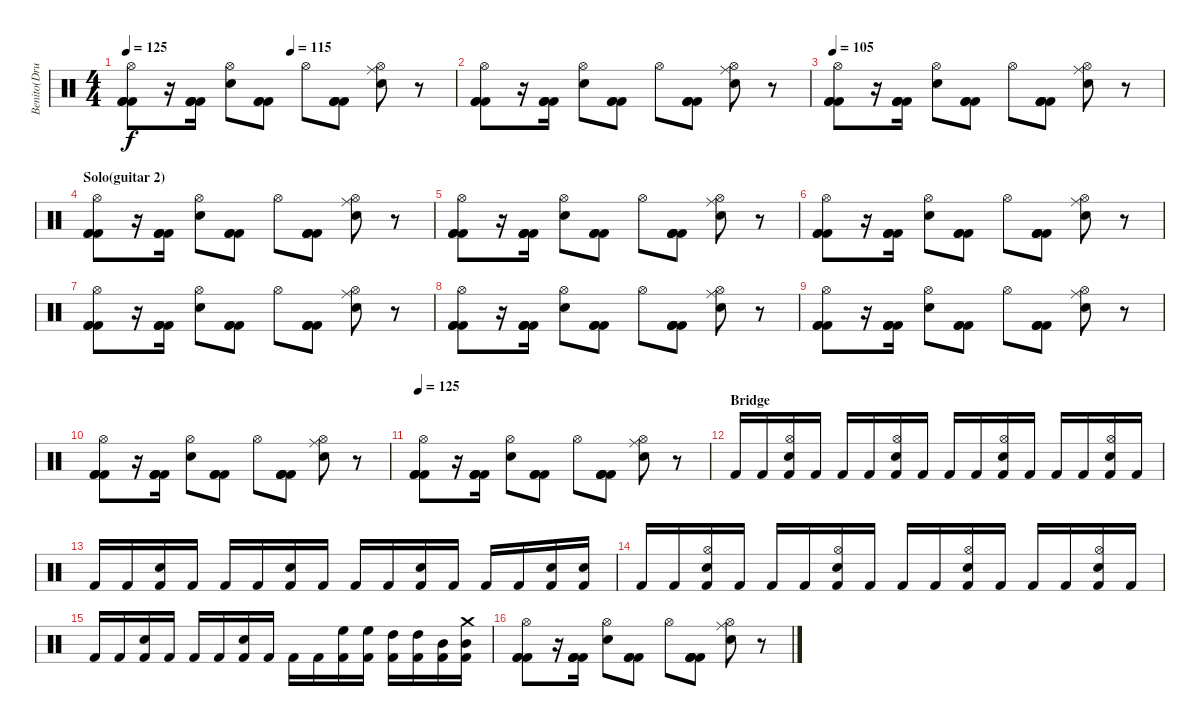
\track ("Benito(Drums)" "Benito(Dru") {instrument percussion}
\staff {score}
\articulation defaults
\ts (4 4)
\tempo 125
\tempo (115 0.5)
\clef neutral
\ks c
("Kick (hit) 2" "Hi-Hat (open)" "Kick (hit) 2" "Kick (hit) 2").8{dy f} r.16 ("Kick (hit) 2" "Kick (hit) 2" "Kick (hit) 2" "Kick (hit) 2").16 ("Electric Snare (hit)" "Hi-Hat (open)").8 ("Kick (hit) 2" "Kick (hit) 2" "Kick (hit) 2").8 "Hi-Hat (open)".8 ("Kick (hit) 2" "Kick (hit) 2" "Kick (hit) 2" "Kick (hit) 2").8 ("Electric Snare (hit)" "Ride (middle)" "Hi-Hat (open)").8 r.8 |
("Kick (hit) 2" "Hi-Hat (open)" "Kick (hit) 2" "Kick (hit) 2").8 r.16 ("Kick (hit) 2" "Kick (hit) 2" "Kick (hit) 2" "Kick (hit) 2").16 ("Electric Snare (hit)" "Hi-Hat (open)").8 ("Kick (hit) 2" "Kick (hit) 2" "Kick (hit) 2").8 "Hi-Hat (open)".8 ("Kick (hit) 2" "Kick (hit) 2" "Kick (hit) 2" "Kick (hit) 2").8 ("Electric Snare (hit)" "Ride (middle)" "Hi-Hat (open)").8 r.8 |
\tempo 105
("Kick (hit) 2" "Hi-Hat (open)" "Kick (hit) 2" "Kick (hit) 2").8 r.16 ("Kick (hit) 2" "Kick (hit) 2" "Kick (hit) 2" "Kick (hit) 2").16 ("Electric Snare (hit)" "Hi-Hat (open)").8 ("Kick (hit) 2" "Kick (hit) 2" "Kick (hit) 2").8 "Hi-Hat (open)".8 ("Kick (hit) 2" "Kick (hit) 2" "Kick (hit) 2" "Kick (hit) 2").8 ("Electric Snare (hit)" "Ride (middle)" "Hi-Hat (open)").8 r.8 |
\section ("" "Solo(guitar 2)")
("Kick (hit) 2" "Hi-Hat (open)" "Kick (hit) 2" "Kick (hit) 2").8 r.16 ("Kick (hit) 2" "Kick (hit) 2" "Kick (hit) 2" "Kick (hit) 2").16 ("Electric Snare (hit)" "Hi-Hat (open)").8 ("Kick (hit) 2" "Kick (hit) 2" "Kick (hit) 2").8 "Hi-Hat (open)".8 ("Kick (hit) 2" "Kick (hit) 2" "Kick (hit) 2" "Kick (hit) 2").8 ("Electric Snare (hit)" "Ride (middle)" "Hi-Hat (open)").8 r.8 |
("Kick (hit) 2" "Hi-Hat (open)" "Kick (hit) 2" "Kick (hit) 2").8 r.16 ("Kick (hit) 2" "Kick (hit) 2" "Kick (hit) 2" "Kick (hit) 2").16 ("Electric Snare (hit)" "Hi-Hat (open)").8 ("Kick (hit) 2" "Kick (hit) 2" "Kick (hit) 2").8 "Hi-Hat (open)".8 ("Kick (hit) 2" "Kick (hit) 2" "Kick (hit) 2" "Kick (hit) 2").8 ("Electric Snare (hit)" "Ride (middle)" "Hi-Hat (open)").8 r.8 |
("Kick (hit) 2" "Hi-Hat (open)" "Kick (hit) 2" "Kick (hit) 2").8 r.16 ("Kick (hit) 2" "Kick (hit) 2" "Kick (hit) 2" "Kick (hit) 2").16 ("Electric Snare (hit)" "Hi-Hat (open)").8 ("Kick (hit) 2" "Kick (hit) 2" "Kick (hit) 2").8 "Hi-Hat (open)".8 ("Kick (hit) 2" "Kick (hit) 2" "Kick (hit) 2" "Kick (hit) 2").8 ("Electric Snare (hit)" "Ride (middle)" "Hi-Hat (open)").8 r.8 |
("Kick (hit) 2" "Hi-Hat (open)" "Kick (hit) 2" "Kick (hit) 2").8 r.16 ("Kick (hit) 2" "Kick (hit) 2" "Kick (hit) 2" "Kick (hit) 2").16 ("Electric Snare (hit)" "Hi-Hat (open)").8 ("Kick (hit) 2" "Kick (hit) 2" "Kick (hit) 2").8 "Hi-Hat (open)".8 ("Kick (hit) 2" "Kick (hit) 2" "Kick (hit) 2" "Kick (hit) 2").8 ("Electric Snare (hit)" "Ride (middle)" "Hi-Hat (open)").8 r.8 |
("Kick (hit) 2" "Hi-Hat (open)" "Kick (hit) 2" "Kick (hit) 2").8 r.16 ("Kick (hit) 2" "Kick (hit) 2" "Kick (hit) 2" "Kick (hit) 2").16 ("Electric Snare (hit)" "Hi-Hat (open)").8 ("Kick (hit) 2" "Kick (hit) 2" "Kick (hit) 2").8 "Hi-Hat (open)".8 ("Kick (hit) 2" "Kick (hit) 2" "Kick (hit) 2" "Kick (hit) 2").8 ("Electric Snare (hit)" "Ride (middle)" "Hi-Hat (open)").8 r.8 |
("Kick (hit) 2" "Hi-Hat (open)" "Kick (hit) 2" "Kick (hit) 2").8 r.16 ("Kick (hit) 2" "Kick (hit) 2" "Kick (hit) 2" "Kick (hit) 2").16 ("Electric Snare (hit)" "Hi-Hat (open)").8 ("Kick (hit) 2" "Kick (hit) 2" "Kick (hit) 2").8 "Hi-Hat (open)".8 ("Kick (hit) 2" "Kick (hit) 2" "Kick (hit) 2" "Kick (hit) 2").8 ("Electric Snare (hit)" "Ride (middle)" "Hi-Hat (open)").8 r.8 |
("Kick (hit) 2" "Hi-Hat (open)" "Kick (hit) 2" "Kick (hit) 2").8 r.16 ("Kick (hit) 2" "Kick (hit) 2" "Kick (hit) 2" "Kick (hit) 2").16 ("Electric Snare (hit)" "Hi-Hat (open)").8 ("Kick (hit) 2" "Kick (hit) 2" "Kick (hit) 2").8 "Hi-Hat (open)".8 ("Kick (hit) 2" "Kick (hit) 2" "Kick (hit) 2" "Kick (hit) 2").8 ("Electric Snare (hit)" "Ride (middle)" "Hi-Hat (open)").8 r.8 |
\tempo 125
("Kick (hit) 2" "Hi-Hat (open)" "Kick (hit) 2" "Kick (hit) 2").8 r.16 ("Kick (hit) 2" "Kick (hit) 2" "Kick (hit) 2" "Kick (hit) 2").16 ("Electric Snare (hit)" "Hi-Hat (open)").8 ("Kick (hit) 2" "Kick (hit) 2" "Kick (hit) 2").8 "Hi-Hat (open)".8 ("Kick (hit) 2" "Kick (hit) 2" "Kick (hit) 2" "Kick (hit) 2").8 ("Electric Snare (hit)" "Ride (middle)" "Hi-Hat (open)").8 r.8 |
\section ("" "Bridge")
"Kick (hit) 2".16 "Kick (hit) 2".16 ("Electric Snare (hit)" "Kick (hit) 2" "Hi-Hat (open)").16 "Kick (hit) 2".16 "Kick (hit) 2".16 "Kick (hit) 2".16 ("Electric Snare (hit)" "Kick (hit) 2" "Hi-Hat (open)").16 "Kick (hit) 2".16 "Kick (hit) 2".16 "Kick (hit) 2".16 ("Electric Snare (hit)" "Kick (hit) 2" "Hi-Hat (open)").16 "Kick (hit) 2".16 "Kick (hit) 2".16 "Kick (hit) 2".16 ("Electric Snare (hit)" "Kick (hit) 2" "Hi-Hat (open)").16 "Kick (hit) 2".16 |
"Kick (hit) 2".16 "Kick (hit) 2".16 ("Electric Snare (hit)" "Kick (hit) 2").16 "Kick (hit) 2".16 "Kick (hit) 2".16 "Kick (hit) 2".16 ("Electric Snare (hit)" "Kick (hit) 2").16 "Kick (hit) 2".16 "Kick (hit) 2".16 "Kick (hit) 2".16 ("Electric Snare (hit)" "Kick (hit) 2").16 "Kick (hit) 2".16 "Kick (hit) 2".16 "Kick (hit) 2".16 ("Electric Snare (hit)" "Kick (hit) 2").16 ("Electric Snare (hit)" "Kick (hit) 2").16 |
"Kick (hit) 2".16 "Kick (hit) 2".16 ("Electric Snare (hit)" "Kick (hit) 2" "Hi-Hat (open)").16 "Kick (hit) 2".16 "Kick (hit) 2".16 "Kick (hit) 2".16 ("Electric Snare (hit)" "Kick (hit) 2" "Hi-Hat (open)").16 "Kick (hit) 2".16 "Kick (hit) 2".16 "Kick (hit) 2".16 ("Electric Snare (hit)" "Kick (hit) 2" "Hi-Hat (open)").16 "Kick (hit) 2".16 "Kick (hit) 2".16 "Kick (hit) 2".16 ("Electric Snare (hit)" "Kick (hit) 2" "Hi-Hat (open)").16 "Kick (hit) 2".16 |
"Kick (hit) 2".16 "Kick (hit) 2".16 ("Electric Snare (hit)" "Kick (hit) 2").16 "Kick (hit) 2".16 "Kick (hit) 2".16 "Kick (hit) 2".16 ("Electric Snare (hit)" "Kick (hit) 2").16 "Kick (hit) 2".16 "Kick (hit) 2".16 "Kick (hit) 2".16 ("High Floor Tom (hit)" "Kick (hit) 2").16 ("High Floor Tom (hit)" "Kick (hit) 2").16 ("High Tom (hit)" "Kick (hit) 2").16 ("High Tom (hit)" "Kick (hit) 2").16 ("Mid Tom (hit)" "Kick (hit) 2").16 ("Mid Tom (hit)" "Kick (hit) 2" "Crash medium (hit)").16 |
("Kick (hit) 2" "Hi-Hat (open)" "Kick (hit) 2" "Kick (hit) 2").8 r.16 ("Kick (hit) 2" "Kick (hit) 2" "Kick (hit) 2" "Kick (hit) 2").16 ("Electric Snare (hit)" "Hi-Hat (open)").8 ("Kick (hit) 2" "Kick (hit) 2" "Kick (hit) 2").8 "Hi-Hat (open)".8 ("Kick (hit) 2" "Kick (hit) 2" "Kick (hit) 2" "Kick (hit) 2").8 ("Electric Snare (hit)" "Ride (middle)" "Hi-Hat (open)").8 r.8
